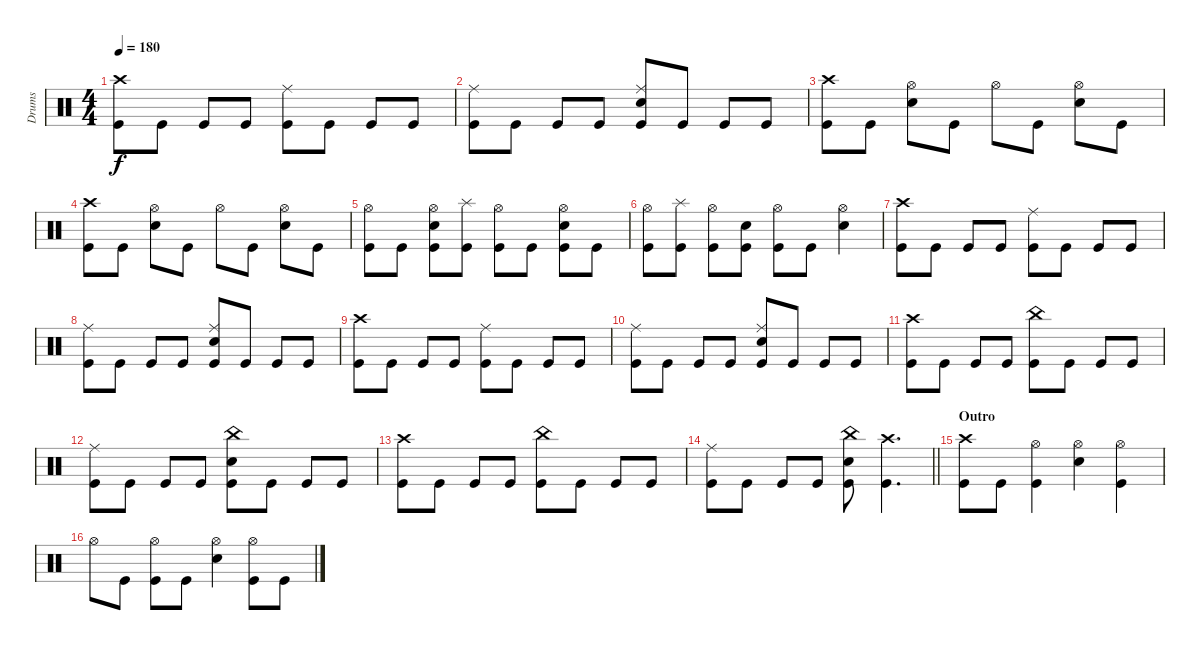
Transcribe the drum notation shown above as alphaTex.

\track ("Drums" "Drums") {instrument percussion}
\staff {score}
\articulation defaults
\ts (4 4)
\tempo 180
\clef neutral
\ks c
("Crash high (hit)" "Kick (hit)").8{dy f} "Kick (hit)".8 "Kick (hit)".8 "Kick (hit)".8 ("Ride (middle)" "Kick (hit)").8 "Kick (hit)".8 "Kick (hit)".8 "Kick (hit)".8 |
("Ride (middle)" "Kick (hit)").8 "Kick (hit)".8 "Kick (hit)".8 "Kick (hit)".8 ("Ride (middle)" "Snare (hit) 2" "Kick (hit)").8 "Kick (hit)".8 "Kick (hit)".8 "Kick (hit)".8 |
("Crash high (hit)" "Kick (hit)").8 "Kick (hit)".8 ("Snare (hit) 2" "Hi-Hat (open)").8 "Kick (hit)".8 "Hi-Hat (open)".8 "Kick (hit)".8 ("Snare (hit) 2" "Hi-Hat (open)").8 "Kick (hit)".8 |
("Crash high (hit)" "Kick (hit)").8 "Kick (hit)".8 ("Snare (hit) 2" "Hi-Hat (open)").8 "Kick (hit)".8 "Hi-Hat (open)".8 "Kick (hit)".8 ("Snare (hit) 2" "Hi-Hat (open)").8 "Kick (hit)".8 |
("Hi-Hat (open)" "Kick (hit)").8 "Kick (hit)".8 ("Snare (hit) 2" "Hi-Hat (open)" "Kick (hit)").8 ("Splash (hit)" "Kick (hit)").8 ("Hi-Hat (open)" "Kick (hit)").8 "Kick (hit)".8 ("Snare (hit) 2" "Hi-Hat (open)" "Kick (hit)").8 "Kick (hit)".8 |
("Hi-Hat (open)" "Kick (hit)").8 ("Splash (hit)" "Kick (hit)").8 ("Hi-Hat (open)" "Kick (hit)").8 ("Snare (hit) 2" "Kick (hit)").8 ("Hi-Hat (open)" "Kick (hit)").8 "Kick (hit)".8 ("Snare (hit) 2" "Hi-Hat (open)").4 |
("Crash high (hit)" "Kick (hit)").8 "Kick (hit)".8 "Kick (hit)".8 "Kick (hit)".8 ("Ride (middle)" "Kick (hit)").8 "Kick (hit)".8 "Kick (hit)".8 "Kick (hit)".8 |
("Ride (middle)" "Kick (hit)").8 "Kick (hit)".8 "Kick (hit)".8 "Kick (hit)".8 ("Ride (middle)" "Snare (hit) 2" "Kick (hit)").8 "Kick (hit)".8 "Kick (hit)".8 "Kick (hit)".8 |
("Crash high (hit)" "Kick (hit)").8 "Kick (hit)".8 "Kick (hit)".8 "Kick (hit)".8 ("Ride (middle)" "Kick (hit)").8 "Kick (hit)".8 "Kick (hit)".8 "Kick (hit)".8 |
("Ride (middle)" "Kick (hit)").8 "Kick (hit)".8 "Kick (hit)".8 "Kick (hit)".8 ("Ride (middle)" "Snare (hit) 2" "Kick (hit)").8 "Kick (hit)".8 "Kick (hit)".8 "Kick (hit)".8 |
("Crash high (hit)" "Kick (hit)").8 "Kick (hit)".8 "Kick (hit)".8 "Kick (hit)".8 ("China (hit)" "Kick (hit)").8 "Kick (hit)".8 "Kick (hit)".8 "Kick (hit)".8 |
("Ride (middle)" "Kick (hit)").8 "Kick (hit)".8 "Kick (hit)".8 "Kick (hit)".8 ("China (hit)" "Snare (hit) 2" "Kick (hit)").8 "Kick (hit)".8 "Kick (hit)".8 "Kick (hit)".8 |
("Crash high (hit)" "Kick (hit)").8 "Kick (hit)".8 "Kick (hit)".8 "Kick (hit)".8 ("China (hit)" "Kick (hit)").8 "Kick (hit)".8 "Kick (hit)".8 "Kick (hit)".8 |
\barLineRight lightlight
("Ride (middle)" "Kick (hit)").8 "Kick (hit)".8 "Kick (hit)".8 "Kick (hit)".8 ("China (hit)" "Snare (hit) 2" "Kick (hit)").8 ("Crash high (hit)" "Kick (hit)").4{d} |
\section ("" "Outro")
("Crash high (hit)" "Kick (hit)").8 "Kick (hit)".8 ("Kick (hit)" "Hi-Hat (open)").4 ("Hi-Hat (open)" "Snare (hit) 2").4 ("Hi-Hat (open)" "Kick (hit)").4 |
"Hi-Hat (open)".8 "Kick (hit)".8 ("Hi-Hat (open)" "Kick (hit)").8 "Kick (hit)".8 ("Hi-Hat (open)" "Snare (hit) 2").4 ("Hi-Hat (open)" "Kick (hit)").8 "Kick (hit)".8
